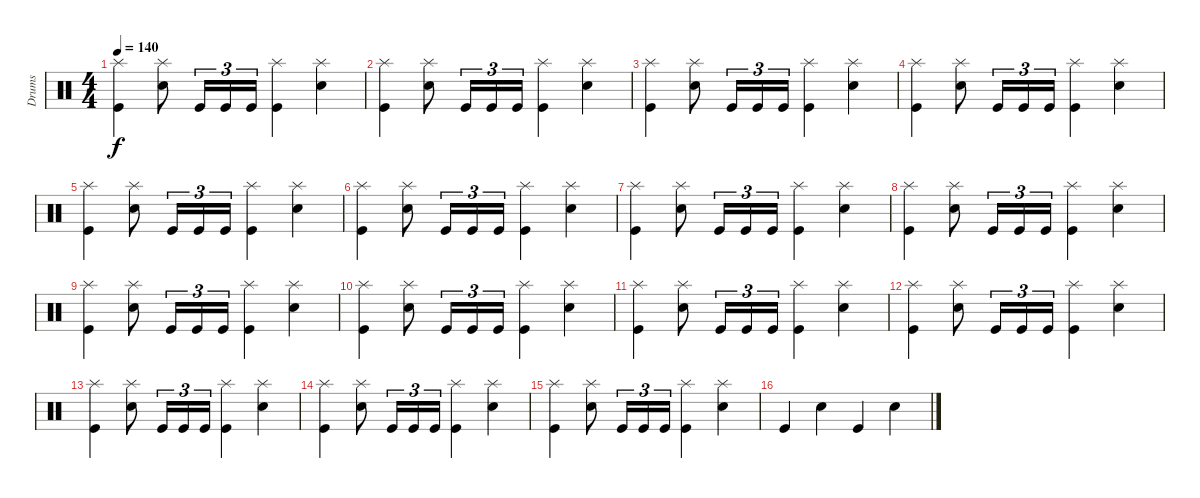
\track ("Drums" "Drums") {instrument percussion}
\staff {score}
\articulation defaults
\ts (4 4)
\tempo 140
\clef neutral
\ks c
("Splash (hit)" "Kick (hit)").4{dy f} ("Electric Snare (hit)" "Splash (hit)").8 "Kick (hit)".16{tu (3 2)} "Kick (hit)".16{tu (3 2)} "Kick (hit)".16{tu (3 2)} ("Splash (hit)" "Kick (hit)").4 ("Splash (hit)" "Electric Snare (hit)").4 |
("Splash (hit)" "Kick (hit)").4 ("Electric Snare (hit)" "Splash (hit)").8 "Kick (hit)".16{tu (3 2)} "Kick (hit)".16{tu (3 2)} "Kick (hit)".16{tu (3 2)} ("Splash (hit)" "Kick (hit)").4 ("Splash (hit)" "Electric Snare (hit)").4 |
("Splash (hit)" "Kick (hit)").4 ("Electric Snare (hit)" "Splash (hit)").8 "Kick (hit)".16{tu (3 2)} "Kick (hit)".16{tu (3 2)} "Kick (hit)".16{tu (3 2)} ("Splash (hit)" "Kick (hit)").4 ("Splash (hit)" "Electric Snare (hit)").4 |
("Splash (hit)" "Kick (hit)").4 ("Electric Snare (hit)" "Splash (hit)").8 "Kick (hit)".16{tu (3 2)} "Kick (hit)".16{tu (3 2)} "Kick (hit)".16{tu (3 2)} ("Splash (hit)" "Kick (hit)").4 ("Splash (hit)" "Electric Snare (hit)").4 |
("Splash (hit)" "Kick (hit)").4 ("Electric Snare (hit)" "Splash (hit)").8 "Kick (hit)".16{tu (3 2)} "Kick (hit)".16{tu (3 2)} "Kick (hit)".16{tu (3 2)} ("Splash (hit)" "Kick (hit)").4 ("Splash (hit)" "Electric Snare (hit)").4 |
("Splash (hit)" "Kick (hit)").4 ("Electric Snare (hit)" "Splash (hit)").8 "Kick (hit)".16{tu (3 2)} "Kick (hit)".16{tu (3 2)} "Kick (hit)".16{tu (3 2)} ("Splash (hit)" "Kick (hit)").4 ("Splash (hit)" "Electric Snare (hit)").4 |
("Splash (hit)" "Kick (hit)").4 ("Electric Snare (hit)" "Splash (hit)").8 "Kick (hit)".16{tu (3 2)} "Kick (hit)".16{tu (3 2)} "Kick (hit)".16{tu (3 2)} ("Splash (hit)" "Kick (hit)").4 ("Splash (hit)" "Electric Snare (hit)").4 |
("Splash (hit)" "Kick (hit)").4 ("Electric Snare (hit)" "Splash (hit)").8 "Kick (hit)".16{tu (3 2)} "Kick (hit)".16{tu (3 2)} "Kick (hit)".16{tu (3 2)} ("Splash (hit)" "Kick (hit)").4 ("Splash (hit)" "Electric Snare (hit)").4 |
("Splash (hit)" "Kick (hit)").4 ("Electric Snare (hit)" "Splash (hit)").8 "Kick (hit)".16{tu (3 2)} "Kick (hit)".16{tu (3 2)} "Kick (hit)".16{tu (3 2)} ("Splash (hit)" "Kick (hit)").4 ("Splash (hit)" "Electric Snare (hit)").4 |
("Splash (hit)" "Kick (hit)").4 ("Electric Snare (hit)" "Splash (hit)").8 "Kick (hit)".16{tu (3 2)} "Kick (hit)".16{tu (3 2)} "Kick (hit)".16{tu (3 2)} ("Splash (hit)" "Kick (hit)").4 ("Splash (hit)" "Electric Snare (hit)").4 |
("Splash (hit)" "Kick (hit)").4 ("Electric Snare (hit)" "Splash (hit)").8 "Kick (hit)".16{tu (3 2)} "Kick (hit)".16{tu (3 2)} "Kick (hit)".16{tu (3 2)} ("Splash (hit)" "Kick (hit)").4 ("Splash (hit)" "Electric Snare (hit)").4 |
("Splash (hit)" "Kick (hit)").4 ("Electric Snare (hit)" "Splash (hit)").8 "Kick (hit)".16{tu (3 2)} "Kick (hit)".16{tu (3 2)} "Kick (hit)".16{tu (3 2)} ("Splash (hit)" "Kick (hit)").4 ("Splash (hit)" "Electric Snare (hit)").4 |
("Splash (hit)" "Kick (hit)").4 ("Electric Snare (hit)" "Splash (hit)").8 "Kick (hit)".16{tu (3 2)} "Kick (hit)".16{tu (3 2)} "Kick (hit)".16{tu (3 2)} ("Splash (hit)" "Kick (hit)").4 ("Splash (hit)" "Electric Snare (hit)").4 |
("Splash (hit)" "Kick (hit)").4 ("Electric Snare (hit)" "Splash (hit)").8 "Kick (hit)".16{tu (3 2)} "Kick (hit)".16{tu (3 2)} "Kick (hit)".16{tu (3 2)} ("Splash (hit)" "Kick (hit)").4 ("Splash (hit)" "Electric Snare (hit)").4 |
("Splash (hit)" "Kick (hit)").4 ("Electric Snare (hit)" "Splash (hit)").8 "Kick (hit)".16{tu (3 2)} "Kick (hit)".16{tu (3 2)} "Kick (hit)".16{tu (3 2)} ("Splash (hit)" "Kick (hit)").4 ("Splash (hit)" "Electric Snare (hit)").4 |
"Kick (hit)".4 "Electric Snare (hit)".4 "Kick (hit)".4 "Electric Snare (hit)".4
